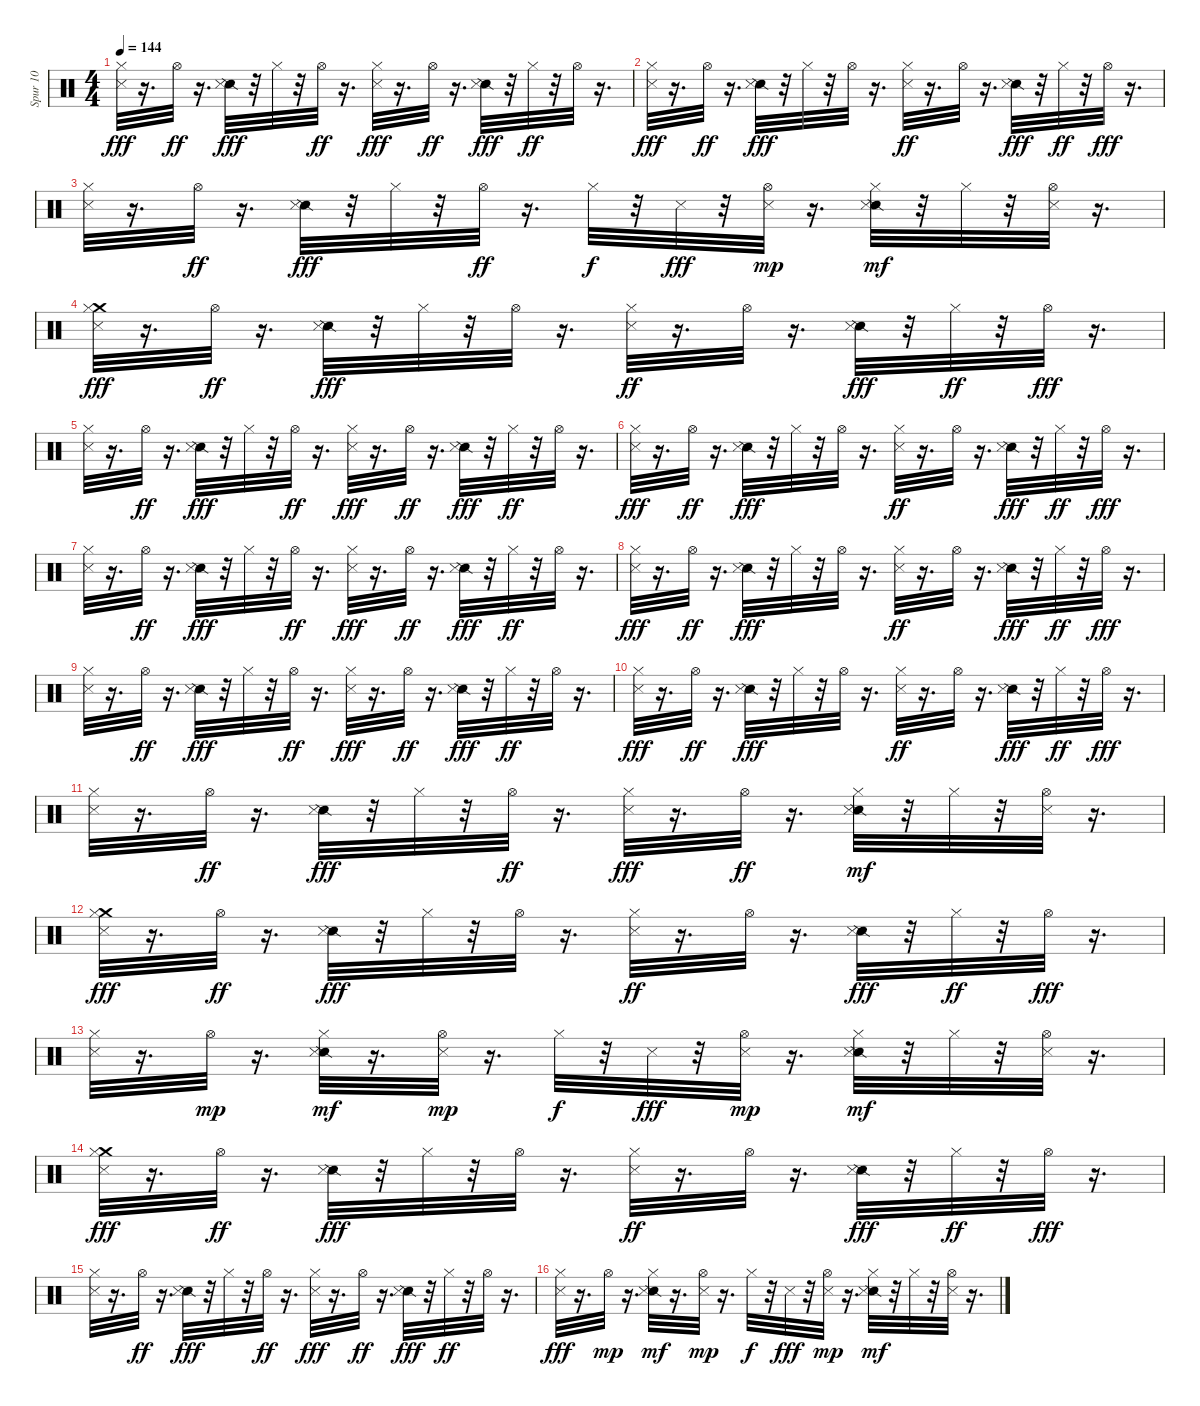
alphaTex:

\track ("Spur 10" "Spur 10") {instrument percussion}
\staff {score}
\articulation defaults
\ts (4 4)
\tempo 144
\clef neutral
\ks c
("Metronome (hit)" "Hi-Hat (closed)").32{dy fff} r.16{d} "Hi-Hat (open)".32{dy ff} r.16{d} ("Snare (side stick) 2" "Metronome (hit)").32{dy fff} r.32 "Hi-Hat (closed)".32 r.32 "Hi-Hat (open)".32{dy ff} r.16{d} ("Metronome (hit)" "Hi-Hat (closed)").32{dy fff} r.16{d} "Hi-Hat (open)".32{dy ff} r.16{d} ("Snare (side stick) 2" "Metronome (hit)").32{dy fff} r.32 "Hi-Hat (closed)".32{dy ff} r.32 "Hi-Hat (open)".32 r.16{d} |
("Metronome (hit)" "Hi-Hat (closed)").32{dy fff} r.16{d} "Hi-Hat (open)".32{dy ff} r.16{d} ("Snare (side stick) 2" "Metronome (hit)").32{dy fff} r.32 "Hi-Hat (closed)".32 r.32 "Hi-Hat (open)".32 r.16{d} ("Metronome (hit)" "Hi-Hat (closed)").32{dy ff} r.16{d} "Hi-Hat (open)".32 r.16{d} ("Snare (side stick) 2" "Metronome (hit)").32{dy fff} r.32 "Hi-Hat (closed)".32{dy ff} r.32 "Hi-Hat (open)".32{dy fff} r.16{d} |
("Metronome (hit)" "Hi-Hat (closed)").32 r.16{d} "Hi-Hat (open)".32{dy ff} r.16{d} ("Snare (side stick) 2" "Metronome (hit)").32{dy fff} r.32 "Hi-Hat (closed)".32 r.32 "Hi-Hat (open)".32{dy ff} r.16{d} "Hi-Hat (closed)".32{dy f} r.32 "Metronome (hit)".32{dy fff} r.32 ("Metronome (hit)" "Hi-Hat (open)").32{dy mp} r.16{d} ("Snare (side stick) 2" "Metronome (hit)" "Hi-Hat (closed)").32{dy mf} r.32 "Hi-Hat (closed)".32 r.32 ("Metronome (hit)" "Hi-Hat (open)").32 r.16{d} |
("Crash medium (hit)" "Metronome (hit)" "Hi-Hat (closed)").32{dy fff} r.16{d} "Hi-Hat (open)".32{dy ff} r.16{d} ("Snare (side stick) 2" "Metronome (hit)").32{dy fff} r.32 "Hi-Hat (closed)".32 r.32 "Hi-Hat (open)".32 r.16{d} ("Metronome (hit)" "Hi-Hat (closed)").32{dy ff} r.16{d} "Hi-Hat (open)".32 r.16{d} ("Snare (side stick) 2" "Metronome (hit)").32{dy fff} r.32 "Hi-Hat (closed)".32{dy ff} r.32 "Hi-Hat (open)".32{dy fff} r.16{d} |
("Metronome (hit)" "Hi-Hat (closed)").32 r.16{d} "Hi-Hat (open)".32{dy ff} r.16{d} ("Snare (side stick) 2" "Metronome (hit)").32{dy fff} r.32 "Hi-Hat (closed)".32 r.32 "Hi-Hat (open)".32{dy ff} r.16{d} ("Metronome (hit)" "Hi-Hat (closed)").32{dy fff} r.16{d} "Hi-Hat (open)".32{dy ff} r.16{d} ("Snare (side stick) 2" "Metronome (hit)").32{dy fff} r.32 "Hi-Hat (closed)".32{dy ff} r.32 "Hi-Hat (open)".32 r.16{d} |
("Metronome (hit)" "Hi-Hat (closed)").32{dy fff} r.16{d} "Hi-Hat (open)".32{dy ff} r.16{d} ("Snare (side stick) 2" "Metronome (hit)").32{dy fff} r.32 "Hi-Hat (closed)".32 r.32 "Hi-Hat (open)".32 r.16{d} ("Metronome (hit)" "Hi-Hat (closed)").32{dy ff} r.16{d} "Hi-Hat (open)".32 r.16{d} ("Snare (side stick) 2" "Metronome (hit)").32{dy fff} r.32 "Hi-Hat (closed)".32{dy ff} r.32 "Hi-Hat (open)".32{dy fff} r.16{d} |
("Metronome (hit)" "Hi-Hat (closed)").32 r.16{d} "Hi-Hat (open)".32{dy ff} r.16{d} ("Snare (side stick) 2" "Metronome (hit)").32{dy fff} r.32 "Hi-Hat (closed)".32 r.32 "Hi-Hat (open)".32{dy ff} r.16{d} ("Metronome (hit)" "Hi-Hat (closed)").32{dy fff} r.16{d} "Hi-Hat (open)".32{dy ff} r.16{d} ("Snare (side stick) 2" "Metronome (hit)").32{dy fff} r.32 "Hi-Hat (closed)".32{dy ff} r.32 "Hi-Hat (open)".32 r.16{d} |
("Metronome (hit)" "Hi-Hat (closed)").32{dy fff} r.16{d} "Hi-Hat (open)".32{dy ff} r.16{d} ("Snare (side stick) 2" "Metronome (hit)").32{dy fff} r.32 "Hi-Hat (closed)".32 r.32 "Hi-Hat (open)".32 r.16{d} ("Metronome (hit)" "Hi-Hat (closed)").32{dy ff} r.16{d} "Hi-Hat (open)".32 r.16{d} ("Snare (side stick) 2" "Metronome (hit)").32{dy fff} r.32 "Hi-Hat (closed)".32{dy ff} r.32 "Hi-Hat (open)".32{dy fff} r.16{d} |
("Metronome (hit)" "Hi-Hat (closed)").32 r.16{d} "Hi-Hat (open)".32{dy ff} r.16{d} ("Snare (side stick) 2" "Metronome (hit)").32{dy fff} r.32 "Hi-Hat (closed)".32 r.32 "Hi-Hat (open)".32{dy ff} r.16{d} ("Metronome (hit)" "Hi-Hat (closed)").32{dy fff} r.16{d} "Hi-Hat (open)".32{dy ff} r.16{d} ("Snare (side stick) 2" "Metronome (hit)").32{dy fff} r.32 "Hi-Hat (closed)".32{dy ff} r.32 "Hi-Hat (open)".32 r.16{d} |
("Metronome (hit)" "Hi-Hat (closed)").32{dy fff} r.16{d} "Hi-Hat (open)".32{dy ff} r.16{d} ("Snare (side stick) 2" "Metronome (hit)").32{dy fff} r.32 "Hi-Hat (closed)".32 r.32 "Hi-Hat (open)".32 r.16{d} ("Metronome (hit)" "Hi-Hat (closed)").32{dy ff} r.16{d} "Hi-Hat (open)".32 r.16{d} ("Snare (side stick) 2" "Metronome (hit)").32{dy fff} r.32 "Hi-Hat (closed)".32{dy ff} r.32 "Hi-Hat (open)".32{dy fff} r.16{d} |
("Metronome (hit)" "Hi-Hat (closed)").32 r.16{d} "Hi-Hat (open)".32{dy ff} r.16{d} ("Snare (side stick) 2" "Metronome (hit)").32{dy fff} r.32 "Hi-Hat (closed)".32 r.32 "Hi-Hat (open)".32{dy ff} r.16{d} ("Metronome (hit)" "Hi-Hat (closed)").32{dy fff} r.16{d} "Hi-Hat (open)".32{dy ff} r.16{d} ("Snare (side stick) 2" "Metronome (hit)" "Hi-Hat (closed)").32{dy mf} r.32 "Hi-Hat (closed)".32 r.32 ("Metronome (hit)" "Hi-Hat (open)").32 r.16{d} |
("Crash medium (hit)" "Metronome (hit)" "Hi-Hat (closed)").32{dy fff} r.16{d} "Hi-Hat (open)".32{dy ff} r.16{d} ("Snare (side stick) 2" "Metronome (hit)").32{dy fff} r.32 "Hi-Hat (closed)".32 r.32 "Hi-Hat (open)".32 r.16{d} ("Metronome (hit)" "Hi-Hat (closed)").32{dy ff} r.16{d} "Hi-Hat (open)".32 r.16{d} ("Snare (side stick) 2" "Metronome (hit)").32{dy fff} r.32 "Hi-Hat (closed)".32{dy ff} r.32 "Hi-Hat (open)".32{dy fff} r.16{d} |
("Metronome (hit)" "Hi-Hat (closed)").32 r.16{d} "Hi-Hat (open)".32{dy mp} r.16{d} ("Snare (side stick) 2" "Metronome (hit)" "Hi-Hat (closed)").32{dy mf} r.16{d} ("Metronome (hit)" "Hi-Hat (open)").32{dy mp} r.16{d} "Hi-Hat (closed)".32{dy f} r.32 "Metronome (hit)".32{dy fff} r.32 ("Metronome (hit)" "Hi-Hat (open)").32{dy mp} r.16{d} ("Snare (side stick) 2" "Metronome (hit)" "Hi-Hat (closed)").32{dy mf} r.32 "Hi-Hat (closed)".32 r.32 ("Metronome (hit)" "Hi-Hat (open)").32 r.16{d} |
("Crash medium (hit)" "Metronome (hit)" "Hi-Hat (closed)").32{dy fff} r.16{d} "Hi-Hat (open)".32{dy ff} r.16{d} ("Snare (side stick) 2" "Metronome (hit)").32{dy fff} r.32 "Hi-Hat (closed)".32 r.32 "Hi-Hat (open)".32 r.16{d} ("Metronome (hit)" "Hi-Hat (closed)").32{dy ff} r.16{d} "Hi-Hat (open)".32 r.16{d} ("Snare (side stick) 2" "Metronome (hit)").32{dy fff} r.32 "Hi-Hat (closed)".32{dy ff} r.32 "Hi-Hat (open)".32{dy fff} r.16{d} |
("Metronome (hit)" "Hi-Hat (closed)").32 r.16{d} "Hi-Hat (open)".32{dy ff} r.16{d} ("Snare (side stick) 2" "Metronome (hit)").32{dy fff} r.32 "Hi-Hat (closed)".32 r.32 "Hi-Hat (open)".32{dy ff} r.16{d} ("Metronome (hit)" "Hi-Hat (closed)").32{dy fff} r.16{d} "Hi-Hat (open)".32{dy ff} r.16{d} ("Snare (side stick) 2" "Metronome (hit)").32{dy fff} r.32 "Hi-Hat (closed)".32{dy ff} r.32 "Hi-Hat (open)".32 r.16{d} |
("Metronome (hit)" "Hi-Hat (closed)").32{dy fff} r.16{d} "Hi-Hat (open)".32{dy mp} r.16{d} ("Snare (side stick) 2" "Metronome (hit)" "Hi-Hat (closed)").32{dy mf} r.16{d} ("Metronome (hit)" "Hi-Hat (open)").32{dy mp} r.16{d} "Hi-Hat (closed)".32{dy f} r.32 "Metronome (hit)".32{dy fff} r.32 ("Metronome (hit)" "Hi-Hat (open)").32{dy mp} r.16{d} ("Snare (side stick) 2" "Metronome (hit)" "Hi-Hat (closed)").32{dy mf} r.32 "Hi-Hat (closed)".32 r.32 ("Metronome (hit)" "Hi-Hat (open)").32 r.16{d}
